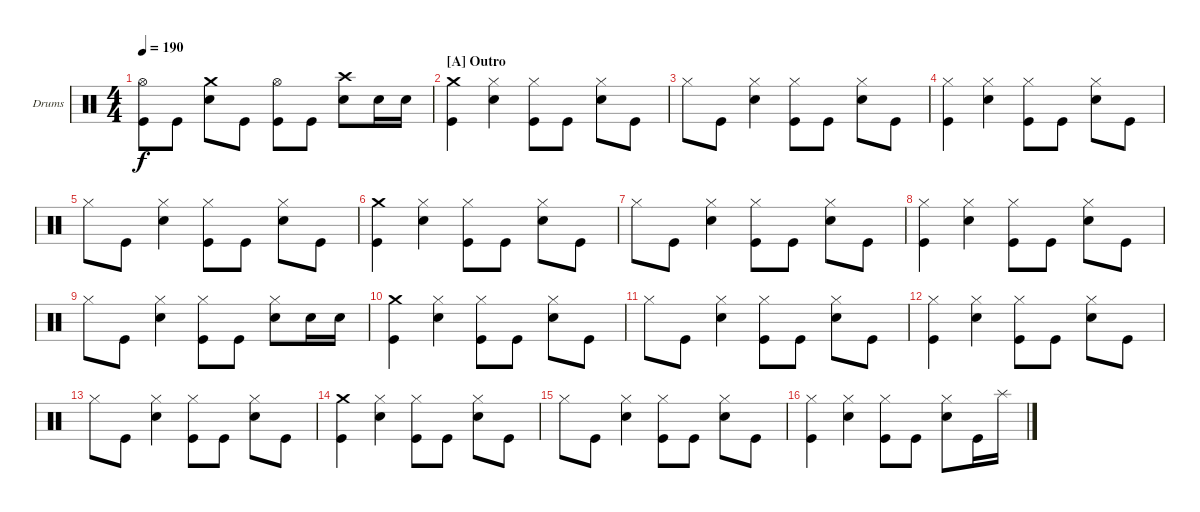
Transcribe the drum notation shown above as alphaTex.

\bracketExtendMode groupsimilarinstruments
\firstSystemTrackNameOrientation horizontal
\otherSystemsTrackNameOrientation horizontal
\track ("Drums" "Drums") {instrument percussion}
\staff {score}
\articulation defaults
\ts (4 4)
\tempo 190
\clef neutral
\ks c
("Kick (hit)" "Hi-Hat (open)").8{dy f} "Kick (hit)".8 ("Snare (hit) 2" "Crash medium (hit)").8 "Kick (hit)".8 ("Kick (hit)" "Hi-Hat (open)").8 "Kick (hit)".8 ("Snare (hit) 2" "Crash high (hit)").8 "Snare (hit) 2".16 "Snare (hit) 2".16 |
\section ("A" "Outro")
("Crash medium (hit)" "Kick (hit)").4 ("Hi-Hat (closed)" "Snare (hit) 2").4 ("Hi-Hat (closed)" "Kick (hit)").8 "Kick (hit)".8 ("Hi-Hat (closed)" "Snare (hit) 2").8 "Kick (hit)".8 |
"Hi-Hat (closed)".8 "Kick (hit)".8 ("Hi-Hat (closed)" "Snare (hit) 2").4 ("Hi-Hat (closed)" "Kick (hit)").8 "Kick (hit)".8 ("Hi-Hat (closed)" "Snare (hit) 2").8 "Kick (hit)".8 |
("Kick (hit)" "Hi-Hat (closed)").4 ("Hi-Hat (closed)" "Snare (hit) 2").4 ("Hi-Hat (closed)" "Kick (hit)").8 "Kick (hit)".8 ("Hi-Hat (closed)" "Snare (hit) 2").8 "Kick (hit)".8 |
"Hi-Hat (closed)".8 "Kick (hit)".8 ("Hi-Hat (closed)" "Snare (hit) 2").4 ("Hi-Hat (closed)" "Kick (hit)").8 "Kick (hit)".8 ("Hi-Hat (closed)" "Snare (hit) 2").8 "Kick (hit)".8 |
("Crash medium (hit)" "Kick (hit)").4 ("Hi-Hat (closed)" "Snare (hit) 2").4 ("Hi-Hat (closed)" "Kick (hit)").8 "Kick (hit)".8 ("Hi-Hat (closed)" "Snare (hit) 2").8 "Kick (hit)".8 |
"Hi-Hat (closed)".8 "Kick (hit)".8 ("Hi-Hat (closed)" "Snare (hit) 2").4 ("Hi-Hat (closed)" "Kick (hit)").8 "Kick (hit)".8 ("Hi-Hat (closed)" "Snare (hit) 2").8 "Kick (hit)".8 |
("Kick (hit)" "Hi-Hat (closed)").4 ("Hi-Hat (closed)" "Snare (hit) 2").4 ("Hi-Hat (closed)" "Kick (hit)").8 "Kick (hit)".8 ("Hi-Hat (closed)" "Snare (hit) 2").8 "Kick (hit)".8 |
"Hi-Hat (closed)".8 "Kick (hit)".8 ("Hi-Hat (closed)" "Snare (hit) 2").4 ("Hi-Hat (closed)" "Kick (hit)").8 "Kick (hit)".8 ("Hi-Hat (closed)" "Snare (hit) 2").8 "Snare (hit) 2".16 "Snare (hit) 2".16 |
("Crash medium (hit)" "Kick (hit)").4 ("Hi-Hat (closed)" "Snare (hit) 2").4 ("Hi-Hat (closed)" "Kick (hit)").8 "Kick (hit)".8 ("Hi-Hat (closed)" "Snare (hit) 2").8 "Kick (hit)".8 |
"Hi-Hat (closed)".8 "Kick (hit)".8 ("Hi-Hat (closed)" "Snare (hit) 2").4 ("Hi-Hat (closed)" "Kick (hit)").8 "Kick (hit)".8 ("Hi-Hat (closed)" "Snare (hit) 2").8 "Kick (hit)".8 |
("Kick (hit)" "Hi-Hat (closed)").4 ("Hi-Hat (closed)" "Snare (hit) 2").4 ("Hi-Hat (closed)" "Kick (hit)").8 "Kick (hit)".8 ("Hi-Hat (closed)" "Snare (hit) 2").8 "Kick (hit)".8 |
"Hi-Hat (closed)".8 "Kick (hit)".8 ("Hi-Hat (closed)" "Snare (hit) 2").4 ("Hi-Hat (closed)" "Kick (hit)").8 "Kick (hit)".8 ("Hi-Hat (closed)" "Snare (hit) 2").8 "Kick (hit)".8 |
("Crash medium (hit)" "Kick (hit)").4 ("Hi-Hat (closed)" "Snare (hit) 2").4 ("Hi-Hat (closed)" "Kick (hit)").8 "Kick (hit)".8 ("Hi-Hat (closed)" "Snare (hit) 2").8 "Kick (hit)".8 |
"Hi-Hat (closed)".8 "Kick (hit)".8 ("Hi-Hat (closed)" "Snare (hit) 2").4 ("Hi-Hat (closed)" "Kick (hit)").8 "Kick (hit)".8 ("Hi-Hat (closed)" "Snare (hit) 2").8 "Kick (hit)".8 |
("Kick (hit)" "Hi-Hat (closed)").4 ("Hi-Hat (closed)" "Snare (hit) 2").4 ("Hi-Hat (closed)" "Kick (hit)").8 "Kick (hit)".8 ("Hi-Hat (closed)" "Snare (hit) 2").8 "Kick (hit)".16 "Splash (hit)".16
